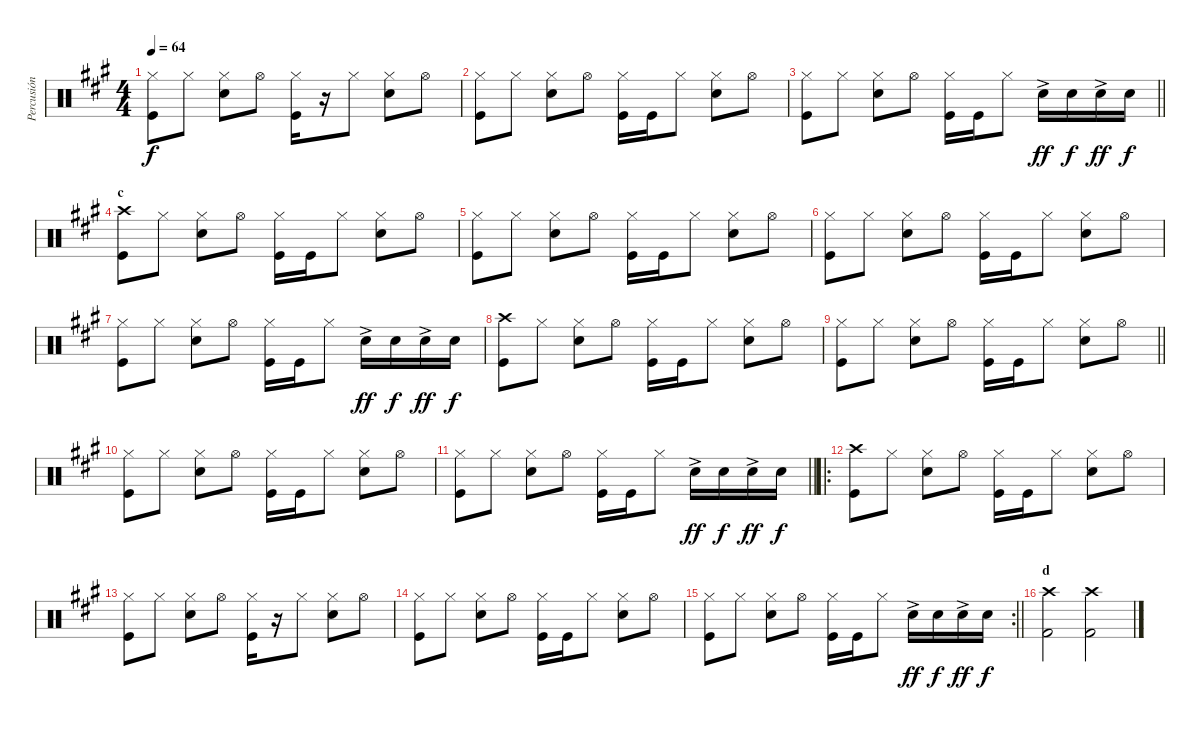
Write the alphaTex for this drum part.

\track ("Percusión" "Percusión") {instrument percussion}
\staff {score}
\articulation defaults
\ts (4 4)
\tempo 64
\clef neutral
\ks a
("Hi-Hat (closed)" "Kick (hit)").8{dy f} "Hi-Hat (closed)".8 ("Hi-Hat (closed)" "Snare (hit) 2").8 "Hi-Hat (open)".8 ("Kick (hit)" "Hi-Hat (closed)").16 r.16 "Hi-Hat (closed)".8 ("Hi-Hat (closed)" "Snare (hit) 2").8 "Hi-Hat (open)".8 |
("Hi-Hat (closed)" "Kick (hit)").8 "Hi-Hat (closed)".8 ("Hi-Hat (closed)" "Snare (hit) 2").8 "Hi-Hat (open)".8 ("Kick (hit)" "Hi-Hat (closed)").16 "Kick (hit)".16 "Hi-Hat (closed)".8 ("Hi-Hat (closed)" "Snare (hit) 2").8 "Hi-Hat (open)".8 |
\barLineRight lightlight
("Hi-Hat (closed)" "Kick (hit)").8 "Hi-Hat (closed)".8 ("Hi-Hat (closed)" "Snare (hit) 2").8 "Hi-Hat (open)".8 ("Kick (hit)" "Hi-Hat (closed)").16 "Kick (hit)".16 "Hi-Hat (closed)".8 "Snare (hit) 2"{ac}.16{dy ff} "Snare (hit) 2".16{dy f} "Snare (hit) 2"{ac}.16{dy ff} "Snare (hit) 2".16{dy f} |
\section ("" "c")
("Kick (hit)" "Crash high (hit)").8 "Hi-Hat (closed)".8 ("Hi-Hat (closed)" "Snare (hit) 2").8 "Hi-Hat (open)".8 ("Kick (hit)" "Hi-Hat (closed)").16 "Kick (hit)".16 "Hi-Hat (closed)".8 ("Hi-Hat (closed)" "Snare (hit) 2").8 "Hi-Hat (open)".8 |
("Hi-Hat (closed)" "Kick (hit)").8 "Hi-Hat (closed)".8 ("Hi-Hat (closed)" "Snare (hit) 2").8 "Hi-Hat (open)".8 ("Kick (hit)" "Hi-Hat (closed)").16 "Kick (hit)".16 "Hi-Hat (closed)".8 ("Hi-Hat (closed)" "Snare (hit) 2").8 "Hi-Hat (open)".8 |
("Hi-Hat (closed)" "Kick (hit)").8 "Hi-Hat (closed)".8 ("Hi-Hat (closed)" "Snare (hit) 2").8 "Hi-Hat (open)".8 ("Kick (hit)" "Hi-Hat (closed)").16 "Kick (hit)".16 "Hi-Hat (closed)".8 ("Hi-Hat (closed)" "Snare (hit) 2").8 "Hi-Hat (open)".8 |
("Hi-Hat (closed)" "Kick (hit)").8 "Hi-Hat (closed)".8 ("Hi-Hat (closed)" "Snare (hit) 2").8 "Hi-Hat (open)".8 ("Kick (hit)" "Hi-Hat (closed)").16 "Kick (hit)".16 "Hi-Hat (closed)".8 "Snare (hit) 2"{ac}.16{dy ff} "Snare (hit) 2".16{dy f} "Snare (hit) 2"{ac}.16{dy ff} "Snare (hit) 2".16{dy f} |
("Kick (hit)" "Crash high (hit)").8 "Hi-Hat (closed)".8 ("Hi-Hat (closed)" "Snare (hit) 2").8 "Hi-Hat (open)".8 ("Kick (hit)" "Hi-Hat (closed)").16 "Kick (hit)".16 "Hi-Hat (closed)".8 ("Hi-Hat (closed)" "Snare (hit) 2").8 "Hi-Hat (open)".8 |
\barLineRight lightlight
("Hi-Hat (closed)" "Kick (hit)").8 "Hi-Hat (closed)".8 ("Hi-Hat (closed)" "Snare (hit) 2").8 "Hi-Hat (open)".8 ("Kick (hit)" "Hi-Hat (closed)").16 "Kick (hit)".16 "Hi-Hat (closed)".8 ("Hi-Hat (closed)" "Snare (hit) 2").8 "Hi-Hat (open)".8 |
("Hi-Hat (closed)" "Kick (hit)").8 "Hi-Hat (closed)".8 ("Hi-Hat (closed)" "Snare (hit) 2").8 "Hi-Hat (open)".8 ("Kick (hit)" "Hi-Hat (closed)").16 "Kick (hit)".16 "Hi-Hat (closed)".8 ("Hi-Hat (closed)" "Snare (hit) 2").8 "Hi-Hat (open)".8 |
\barLineRight lightlight
("Hi-Hat (closed)" "Kick (hit)").8 "Hi-Hat (closed)".8 ("Hi-Hat (closed)" "Snare (hit) 2").8 "Hi-Hat (open)".8 ("Kick (hit)" "Hi-Hat (closed)").16 "Kick (hit)".16 "Hi-Hat (closed)".8 "Snare (hit) 2"{ac}.16{dy ff} "Snare (hit) 2".16{dy f} "Snare (hit) 2"{ac}.16{dy ff} "Snare (hit) 2".16{dy f} |
\ro
("Kick (hit)" "Crash high (hit)").8 "Hi-Hat (closed)".8 ("Hi-Hat (closed)" "Snare (hit) 2").8 "Hi-Hat (open)".8 ("Kick (hit)" "Hi-Hat (closed)").16 "Kick (hit)".16 "Hi-Hat (closed)".8 ("Hi-Hat (closed)" "Snare (hit) 2").8 "Hi-Hat (open)".8 |
("Hi-Hat (closed)" "Kick (hit)").8 "Hi-Hat (closed)".8 ("Hi-Hat (closed)" "Snare (hit) 2").8 "Hi-Hat (open)".8 ("Kick (hit)" "Hi-Hat (closed)").16 r.16 "Hi-Hat (closed)".8 ("Hi-Hat (closed)" "Snare (hit) 2").8 "Hi-Hat (open)".8 |
("Hi-Hat (closed)" "Kick (hit)").8 "Hi-Hat (closed)".8 ("Hi-Hat (closed)" "Snare (hit) 2").8 "Hi-Hat (open)".8 ("Kick (hit)" "Hi-Hat (closed)").16 "Kick (hit)".16 "Hi-Hat (closed)".8 ("Hi-Hat (closed)" "Snare (hit) 2").8 "Hi-Hat (open)".8 |
\rc 2
\barLineRight lightlight
("Hi-Hat (closed)" "Kick (hit)").8 "Hi-Hat (closed)".8 ("Hi-Hat (closed)" "Snare (hit) 2").8 "Hi-Hat (open)".8 ("Kick (hit)" "Hi-Hat (closed)").16 "Kick (hit)".16 "Hi-Hat (closed)".8 "Snare (hit) 2"{ac}.16{dy ff} "Snare (hit) 2".16{dy f} "Snare (hit) 2"{ac}.16{dy ff} "Snare (hit) 2".16{dy f} |
\section ("" "d")
("Kick (hit) 2" "Crash high (hit)").2 ("Kick (hit) 2" "Crash high (hit)").2
